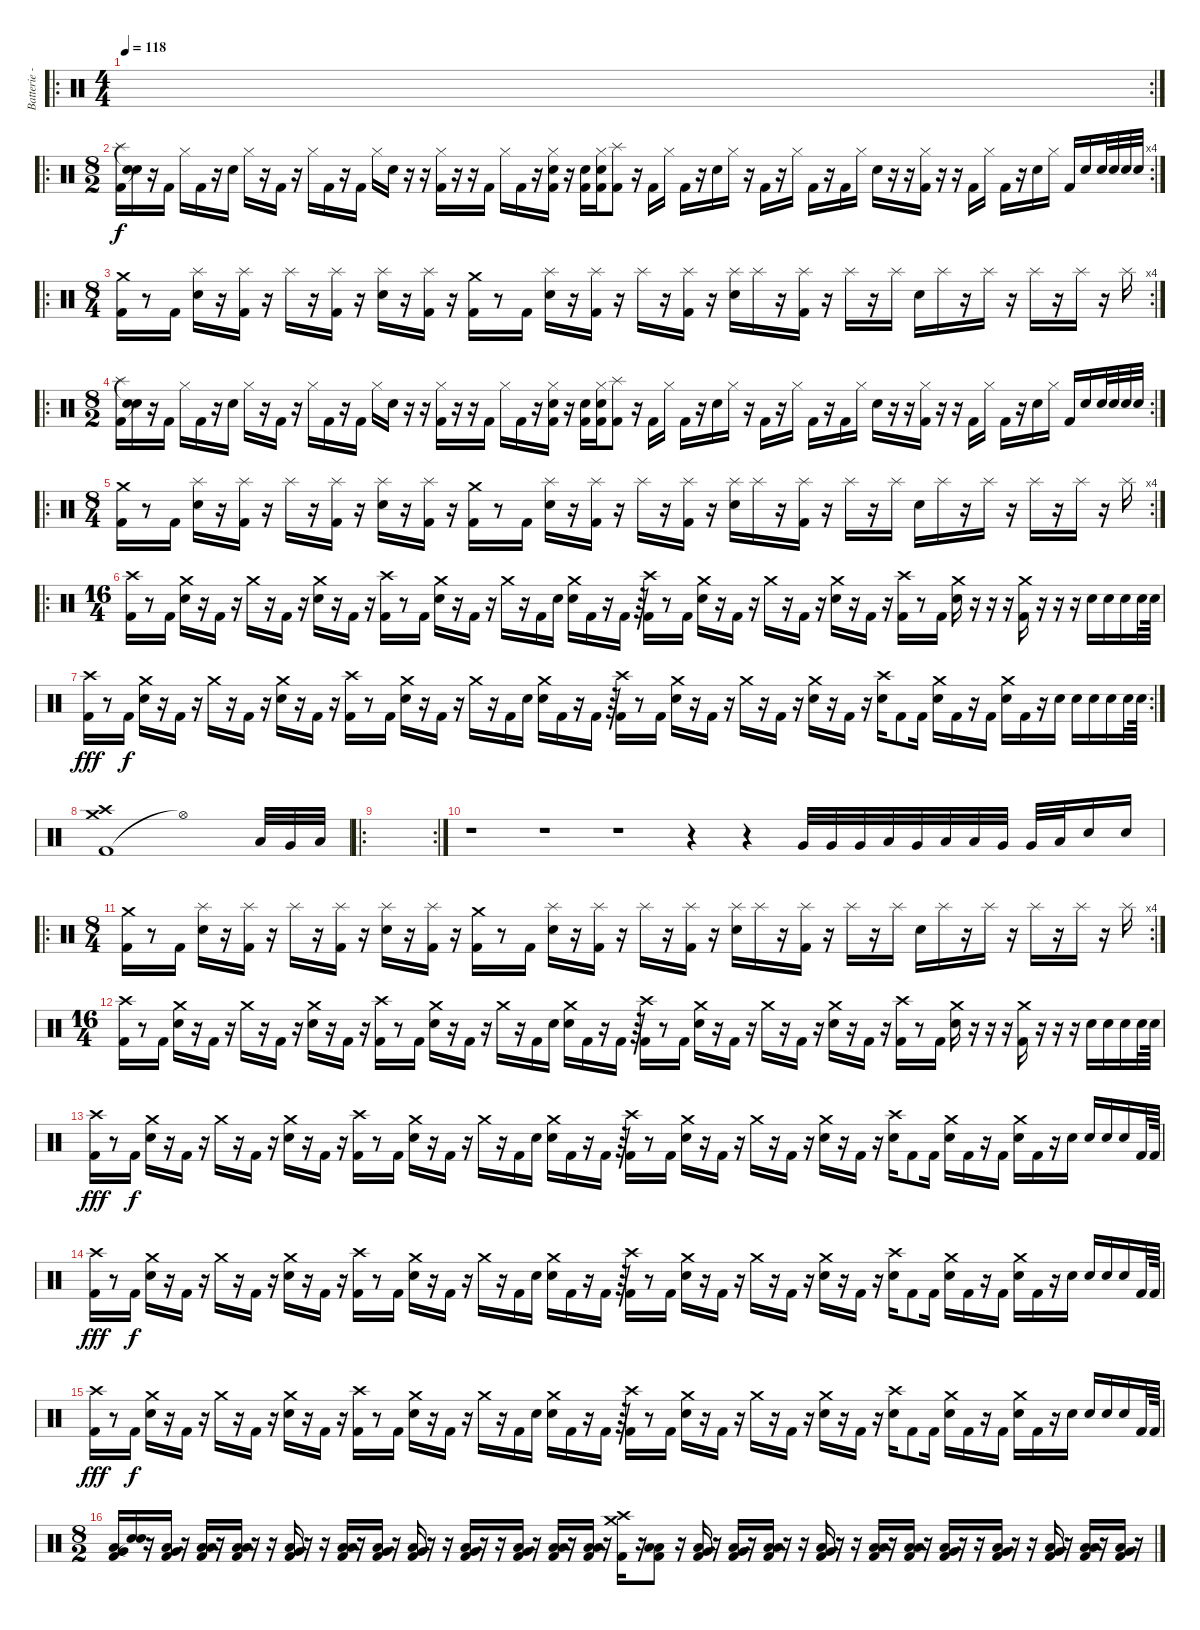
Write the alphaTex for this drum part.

\track ("Batterie - " "Batterie -") {instrument percussion}
\staff {score}
\articulation defaults
\ro
\rc 2
\ts (4 4)
\tempo 118
\clef neutral
\ks c
|
\ro
\rc 4
\ts (8 2)
("Splash (hit)" "Kick (hit) 2").16 ("Snare (hit)"{t} "Snare (hit)"{t}).16 r.16 "Kick (hit) 2".16 "Hi-Hat (closed)".16 "Kick (hit) 2".16 r.16 "Electric Snare (hit)".16 "Hi-Hat (closed)".16 r.16 "Kick (hit) 2".16 r.16 "Hi-Hat (closed)".16 "Kick (hit) 2".16 r.16 "Kick (hit) 2".16 "Hi-Hat (closed)".16 "Electric Snare (hit)".16 r.16 r.16 ("Hi-Hat (closed)" "Kick (hit) 2").16 r.16 r.16 "Kick (hit) 2".16 "Hi-Hat (closed)".16 "Kick (hit) 2".16 r.16 ("Hi-Hat (closed)" "Electric Snare (hit)" "Kick (hit) 2").16 r.16 ("Electric Snare (hit)" "Kick (hit) 2").16 ("Hi-Hat (closed)" "Electric Snare (hit)" "Kick (hit) 2").16 ("Splash (hit)" "Kick (hit) 2").8 r.16 "Kick (hit) 2".16 "Hi-Hat (closed)".16 "Kick (hit) 2".16 r.16 "Electric Snare (hit)".16 "Hi-Hat (closed)".16 r.16 "Kick (hit) 2".16 r.16 "Hi-Hat (closed)".16 "Kick (hit) 2".16 r.16 "Kick (hit) 2".16 "Hi-Hat (closed)".16 "Electric Snare (hit)".16 r.16 r.16 ("Hi-Hat (closed)" "Kick (hit) 2").16 r.16 r.16 "Kick (hit) 2".16 "Hi-Hat (closed)".16 "Kick (hit) 2".16 r.16 "Electric Snare (hit)".16 "Hi-Hat (closed)".16 "Kick (hit) 2".16 "Electric Snare (hit)".16 "Electric Snare (hit)".32 "Electric Snare (hit)".32 "Electric Snare (hit)".32 "Electric Snare (hit)".32 |
\ro
\rc 4
\ts (8 4)
("Kick (hit) 2" "Crash medium (hit)").16 r.8 "Kick (hit) 2".16 ("Electric Snare (hit)" "Splash (hit)").16 r.16 ("Kick (hit) 2" "Splash (hit)").16 r.16 "Splash (hit)".16 r.16 ("Kick (hit) 2" "Splash (hit)").16 r.16 ("Electric Snare (hit)" "Splash (hit)").16 r.16 ("Kick (hit) 2" "Splash (hit)").16 r.16 ("Kick (hit) 2" "Crash medium (hit)").16 r.8 "Kick (hit) 2".16 ("Electric Snare (hit)" "Splash (hit)").16 r.16 ("Splash (hit)" "Kick (hit) 2").16 r.16 "Splash (hit)".16 r.16 ("Kick (hit) 2" "Splash (hit)").16 r.16 ("Splash (hit)" "Electric Snare (hit)").16 "Splash (hit)".16 r.16 ("Kick (hit) 2" "Splash (hit)").16 r.16 "Splash (hit)".16 r.16 "Splash (hit)".16 "Snare (hit)".16 "Splash (hit)".16 r.16 "Splash (hit)".16 r.16 "Splash (hit)".16 r.16 "Splash (hit)".16 r.16 "Splash (hit)".16 |
\ro
\rc 2
\ts (8 2)
("Splash (hit)" "Kick (hit) 2").16 ("Snare (hit)"{t} "Snare (hit)"{t}).16 r.16 "Kick (hit) 2".16 "Hi-Hat (closed)".16 "Kick (hit) 2".16 r.16 "Electric Snare (hit)".16 "Hi-Hat (closed)".16 r.16 "Kick (hit) 2".16 r.16 "Hi-Hat (closed)".16 "Kick (hit) 2".16 r.16 "Kick (hit) 2".16 "Hi-Hat (closed)".16 "Electric Snare (hit)".16 r.16 r.16 ("Hi-Hat (closed)" "Kick (hit) 2").16 r.16 r.16 "Kick (hit) 2".16 "Hi-Hat (closed)".16 "Kick (hit) 2".16 r.16 ("Hi-Hat (closed)" "Electric Snare (hit)" "Kick (hit) 2").16 r.16 ("Electric Snare (hit)" "Kick (hit) 2").16 ("Hi-Hat (closed)" "Electric Snare (hit)" "Kick (hit) 2").16 ("Splash (hit)" "Kick (hit) 2").8 r.16 "Kick (hit) 2".16 "Hi-Hat (closed)".16 "Kick (hit) 2".16 r.16 "Electric Snare (hit)".16 "Hi-Hat (closed)".16 r.16 "Kick (hit) 2".16 r.16 "Hi-Hat (closed)".16 "Kick (hit) 2".16 r.16 "Kick (hit) 2".16 "Hi-Hat (closed)".16 "Electric Snare (hit)".16 r.16 r.16 ("Hi-Hat (closed)" "Kick (hit) 2").16 r.16 r.16 "Kick (hit) 2".16 "Hi-Hat (closed)".16 "Kick (hit) 2".16 r.16 "Electric Snare (hit)".16 "Hi-Hat (closed)".16 "Kick (hit) 2".16 "Electric Snare (hit)".16 "Electric Snare (hit)".32 "Electric Snare (hit)".32 "Electric Snare (hit)".32 "Electric Snare (hit)".32 |
\ro
\rc 4
\ts (8 4)
("Kick (hit) 2" "Crash medium (hit)").16 r.8 "Kick (hit) 2".16 ("Electric Snare (hit)" "Splash (hit)").16 r.16 ("Kick (hit) 2" "Splash (hit)").16 r.16 "Splash (hit)".16 r.16 ("Kick (hit) 2" "Splash (hit)").16 r.16 ("Electric Snare (hit)" "Splash (hit)").16 r.16 ("Kick (hit) 2" "Splash (hit)").16 r.16 ("Kick (hit) 2" "Crash medium (hit)").16 r.8 "Kick (hit) 2".16 ("Electric Snare (hit)" "Splash (hit)").16 r.16 ("Splash (hit)" "Kick (hit) 2").16 r.16 "Splash (hit)".16 r.16 ("Kick (hit) 2" "Splash (hit)").16 r.16 ("Splash (hit)" "Electric Snare (hit)").16 "Splash (hit)".16 r.16 ("Kick (hit) 2" "Splash (hit)").16 r.16 "Splash (hit)".16 r.16 "Splash (hit)".16 "Snare (hit)".16 "Splash (hit)".16 r.16 "Splash (hit)".16 r.16 "Splash (hit)".16 r.16 "Splash (hit)".16 r.16 "Splash (hit)".16 |
\ro
\ts (16 4)
("Kick (hit) 2" "Crash high (hit)").16 r.8 "Kick (hit) 2".16 ("Electric Snare (hit)" "Crash medium (hit)").16 r.16 "Kick (hit) 2".16 r.16 "Crash medium (hit)".16 r.16 "Kick (hit) 2".16 r.16 ("Electric Snare (hit)" "Crash medium (hit)").16 r.16 "Kick (hit) 2".16 r.16 ("Kick (hit) 2" "Crash high (hit)").16 r.8 "Kick (hit) 2".16 ("Electric Snare (hit)" "Crash medium (hit)").16 r.16 "Kick (hit) 2".16 r.16 "Crash medium (hit)".16 r.16 "Kick (hit) 2".16 "Snare (hit)".16 ("Crash medium (hit)" "Electric Snare (hit)").16 "Kick (hit) 2".16 r.16 "Kick (hit) 2".16 r.64 ("Kick (hit) 2" "Crash high (hit)").16 r.8 "Kick (hit) 2".16 ("Crash medium (hit)" "Electric Snare (hit)").16 r.16 "Kick (hit) 2".16 r.16 "Crash medium (hit)".16 r.16 "Kick (hit) 2".16 r.16 ("Electric Snare (hit)" "Crash medium (hit)").16 r.16 "Kick (hit) 2".16 r.16 ("Kick (hit) 2" "Crash high (hit)").16 r.8 "Kick (hit) 2".16 ("Crash medium (hit)" "Electric Snare (hit)").16 r.16 r.16 r.16 ("Kick (hit) 2" "Crash medium (hit)").16 r.16 r.16 r.16 "Electric Snare (hit)".16 "Electric Snare (hit)".16 "Electric Snare (hit)".16 "Electric Snare (hit)".32 "Electric Snare (hit)".64 |
\rc 2
("Kick (hit) 2" "Crash high (hit)").16{dy fff} r.8 "Kick (hit) 2".16{dy f} ("Electric Snare (hit)" "Crash medium (hit)").16 r.16 "Kick (hit) 2".16 r.16 "Crash medium (hit)".16 r.16 "Kick (hit) 2".16 r.16 ("Electric Snare (hit)" "Crash medium (hit)").16 r.16 "Kick (hit) 2".16 r.16 ("Kick (hit) 2" "Crash high (hit)").16 r.8 "Kick (hit) 2".16 ("Electric Snare (hit)" "Crash medium (hit)").16 r.16 "Kick (hit) 2".16 r.16 "Crash medium (hit)".16 r.16 "Kick (hit) 2".16 "Snare (hit)".16 ("Crash medium (hit)" "Electric Snare (hit)").16 "Kick (hit) 2".16 r.16 "Kick (hit) 2".16 r.64 ("Kick (hit) 2" "Crash high (hit)").16 r.8 "Kick (hit) 2".16 ("Crash medium (hit)" "Electric Snare (hit)").16 r.16 "Kick (hit) 2".16 r.16 "Crash medium (hit)".16 r.16 "Kick (hit) 2".16 r.16 ("Electric Snare (hit)" "Crash medium (hit)").16 r.16 "Kick (hit) 2".16 r.16 ("Electric Snare (hit)" "Crash high (hit)").16 "Kick (hit) 2".8 "Kick (hit) 2".16 ("Crash medium (hit)" "Electric Snare (hit)").16 "Kick (hit) 2".16 r.16 "Kick (hit) 2".16 ("Electric Snare (hit)" "Crash medium (hit)").16 "Kick (hit) 2".16 r.16 "Electric Snare (hit)".16 "Electric Snare (hit)".16 "Electric Snare (hit)".16 "Electric Snare (hit)".16 "Electric Snare (hit)".32 "Electric Snare (hit)".64 |
("Kick (hit) 2" "Crash high (hit)" "Crash medium (hit)").1 "Hi-Hat (open)"{t}.1 "Low Tom (hit)".32 "Very Low Tom (hit)".32 "Low Floor Tom (hit)".32 |
\ro
\rc 2
|
r.1 r.1 r.1 r.4 r.4 "Very Low Tom (hit)".32 "Very Low Tom (hit)".32 "Very Low Tom (hit)".32 "Low Tom (hit)".32 "Very Low Tom (hit)".32 "Low Tom (hit)".32 "Low Floor Tom (hit)".32 "Very Low Tom (hit)".32 "Very Low Tom (hit)".32 "Low Tom (hit)".32 "Electric Snare (hit)".16 "Electric Snare (hit)".16 |
\ro
\rc 4
\ts (8 4)
("Kick (hit) 2" "Crash medium (hit)").16 r.8 "Kick (hit) 2".16 ("Electric Snare (hit)" "Splash (hit)").16 r.16 ("Kick (hit) 2" "Splash (hit)").16 r.16 "Splash (hit)".16 r.16 ("Kick (hit) 2" "Splash (hit)").16 r.16 ("Electric Snare (hit)" "Splash (hit)").16 r.16 ("Kick (hit) 2" "Splash (hit)").16 r.16 ("Kick (hit) 2" "Crash medium (hit)").16 r.8 "Kick (hit) 2".16 ("Electric Snare (hit)" "Splash (hit)").16 r.16 ("Splash (hit)" "Kick (hit) 2").16 r.16 "Splash (hit)".16 r.16 ("Kick (hit) 2" "Splash (hit)").16 r.16 ("Splash (hit)" "Electric Snare (hit)").16 "Splash (hit)".16 r.16 ("Kick (hit) 2" "Splash (hit)").16 r.16 "Splash (hit)".16 r.16 "Splash (hit)".16 "Snare (hit)".16 "Splash (hit)".16 r.16 "Splash (hit)".16 r.16 "Splash (hit)".16 r.16 "Splash (hit)".16 r.16 "Splash (hit)".16 |
\ts (16 4)
("Kick (hit) 2" "Crash high (hit)").16 r.8 "Kick (hit) 2".16 ("Electric Snare (hit)" "Crash medium (hit)").16 r.16 "Kick (hit) 2".16 r.16 "Crash medium (hit)".16 r.16 "Kick (hit) 2".16 r.16 ("Electric Snare (hit)" "Crash medium (hit)").16 r.16 "Kick (hit) 2".16 r.16 ("Kick (hit) 2" "Crash high (hit)").16 r.8 "Kick (hit) 2".16 ("Electric Snare (hit)" "Crash medium (hit)").16 r.16 "Kick (hit) 2".16 r.16 "Crash medium (hit)".16 r.16 "Kick (hit) 2".16 "Snare (hit)".16 ("Crash medium (hit)" "Electric Snare (hit)").16 "Kick (hit) 2".16 r.16 "Kick (hit) 2".16 r.64 ("Kick (hit) 2" "Crash high (hit)").16 r.8 "Kick (hit) 2".16 ("Crash medium (hit)" "Electric Snare (hit)").16 r.16 "Kick (hit) 2".16 r.16 "Crash medium (hit)".16 r.16 "Kick (hit) 2".16 r.16 ("Electric Snare (hit)" "Crash medium (hit)").16 r.16 "Kick (hit) 2".16 r.16 ("Kick (hit) 2" "Crash high (hit)").16 r.8 "Kick (hit) 2".16 ("Crash medium (hit)" "Electric Snare (hit)").16 r.16 r.16 r.16 ("Kick (hit) 2" "Crash medium (hit)").16 r.16 r.16 r.16 "Electric Snare (hit)".16 "Electric Snare (hit)".16 "Electric Snare (hit)".16 "Electric Snare (hit)".32 "Electric Snare (hit)".64 |
("Kick (hit) 2" "Crash high (hit)").16{dy fff} r.8 "Kick (hit) 2".16{dy f} ("Electric Snare (hit)" "Crash medium (hit)").16 r.16 "Kick (hit) 2".16 r.16 "Crash medium (hit)".16 r.16 "Kick (hit) 2".16 r.16 ("Electric Snare (hit)" "Crash medium (hit)").16 r.16 "Kick (hit) 2".16 r.16 ("Kick (hit) 2" "Crash high (hit)").16 r.8 "Kick (hit) 2".16 ("Electric Snare (hit)" "Crash medium (hit)").16 r.16 "Kick (hit) 2".16 r.16 "Crash medium (hit)".16 r.16 "Kick (hit) 2".16 "Snare (hit)".16 ("Crash medium (hit)" "Electric Snare (hit)").16 "Kick (hit) 2".16 r.16 "Kick (hit) 2".16 r.64 ("Kick (hit) 2" "Crash high (hit)").16 r.8 "Kick (hit) 2".16 ("Crash medium (hit)" "Electric Snare (hit)").16 r.16 "Kick (hit) 2".16 r.16 "Crash medium (hit)".16 r.16 "Kick (hit) 2".16 r.16 ("Electric Snare (hit)" "Crash medium (hit)").16 r.16 "Kick (hit) 2".16 r.16 ("Electric Snare (hit)" "Crash high (hit)").16 "Kick (hit) 2".8 "Kick (hit) 2".16 ("Crash medium (hit)" "Electric Snare (hit)").16 "Kick (hit) 2".16 r.16 "Kick (hit) 2".16 ("Electric Snare (hit)" "Crash medium (hit)").16 "Kick (hit) 2".16 r.16 "Electric Snare (hit)".16 "Electric Snare (hit)".16 "Electric Snare (hit)".16 "Electric Snare (hit)".16 "Kick (hit) 2".32 "Kick (hit) 2".64 |
("Kick (hit) 2" "Crash high (hit)").16{dy fff} r.8 "Kick (hit) 2".16{dy f} ("Electric Snare (hit)" "Crash medium (hit)").16 r.16 "Kick (hit) 2".16 r.16 "Crash medium (hit)".16 r.16 "Kick (hit) 2".16 r.16 ("Electric Snare (hit)" "Crash medium (hit)").16 r.16 "Kick (hit) 2".16 r.16 ("Kick (hit) 2" "Crash high (hit)").16 r.8 "Kick (hit) 2".16 ("Electric Snare (hit)" "Crash medium (hit)").16 r.16 "Kick (hit) 2".16 r.16 "Crash medium (hit)".16 r.16 "Kick (hit) 2".16 "Snare (hit)".16 ("Crash medium (hit)" "Electric Snare (hit)").16 "Kick (hit) 2".16 r.16 "Kick (hit) 2".16 r.64 ("Kick (hit) 2" "Crash high (hit)").16 r.8 "Kick (hit) 2".16 ("Crash medium (hit)" "Electric Snare (hit)").16 r.16 "Kick (hit) 2".16 r.16 "Crash medium (hit)".16 r.16 "Kick (hit) 2".16 r.16 ("Electric Snare (hit)" "Crash medium (hit)").16 r.16 "Kick (hit) 2".16 r.16 ("Electric Snare (hit)" "Crash high (hit)").16 "Kick (hit) 2".8 "Kick (hit) 2".16 ("Crash medium (hit)" "Electric Snare (hit)").16 "Kick (hit) 2".16 r.16 "Kick (hit) 2".16 ("Electric Snare (hit)" "Crash medium (hit)").16 "Kick (hit) 2".16 r.16 "Electric Snare (hit)".16 "Electric Snare (hit)".16 "Electric Snare (hit)".16 "Electric Snare (hit)".16 "Kick (hit) 2".32 "Kick (hit) 2".64 |
("Kick (hit) 2" "Crash high (hit)").16{dy fff} r.8 "Kick (hit) 2".16{dy f} ("Electric Snare (hit)" "Crash medium (hit)").16 r.16 "Kick (hit) 2".16 r.16 "Crash medium (hit)".16 r.16 "Kick (hit) 2".16 r.16 ("Electric Snare (hit)" "Crash medium (hit)").16 r.16 "Kick (hit) 2".16 r.16 ("Kick (hit) 2" "Crash high (hit)").16 r.8 "Kick (hit) 2".16 ("Electric Snare (hit)" "Crash medium (hit)").16 r.16 "Kick (hit) 2".16 r.16 "Crash medium (hit)".16 r.16 "Kick (hit) 2".16 "Snare (hit)".16 ("Crash medium (hit)" "Electric Snare (hit)").16 "Kick (hit) 2".16 r.16 "Kick (hit) 2".16 r.64 ("Kick (hit) 2" "Crash high (hit)").16 r.8 "Kick (hit) 2".16 ("Crash medium (hit)" "Electric Snare (hit)").16 r.16 "Kick (hit) 2".16 r.16 "Crash medium (hit)".16 r.16 "Kick (hit) 2".16 r.16 ("Electric Snare (hit)" "Crash medium (hit)").16 r.16 "Kick (hit) 2".16 r.16 ("Electric Snare (hit)" "Crash high (hit)").16 "Kick (hit) 2".8 "Kick (hit) 2".16 ("Crash medium (hit)" "Electric Snare (hit)").16 "Kick (hit) 2".16 r.16 "Kick (hit) 2".16 ("Electric Snare (hit)" "Crash medium (hit)").16 "Kick (hit) 2".16 r.16 "Electric Snare (hit)".16 "Electric Snare (hit)".16 "Electric Snare (hit)".16 "Electric Snare (hit)".16 "Kick (hit) 2".32 "Kick (hit) 2".64 |
\ts (8 2)
("Low Tom (hit)" "Very Low Tom (hit)" "Kick (hit) 2").16 ("Snare (hit)"{t} "Snare (hit)"{t}).16 r.16 ("Low Floor Tom (hit)" "Very Low Tom (hit)" "Kick (hit) 2").16 r.16 ("Low Floor Tom (hit)" "Low Tom (hit)" "Kick (hit) 2").16 r.16 ("Low Floor Tom (hit)" "Low Floor Tom (hit)" "Kick (hit) 2").16 r.16 r.16 ("Low Tom (hit)" "Very Low Tom (hit)" "Kick (hit) 2").16 r.16 r.16 ("Low Floor Tom (hit)" "Low Tom (hit)" "Kick (hit) 2").16 r.16 ("Very Low Tom (hit)" "Low Tom (hit)" "Kick (hit) 2").16 r.16 ("Low Floor Tom (hit)" "Very Low Tom (hit)" "Kick (hit) 2").16 r.16 r.16 ("Low Tom (hit)" "Very Low Tom (hit)" "Kick (hit) 2").16 r.16 r.16 ("Very Low Tom (hit)" "Low Floor Tom (hit)" "Kick (hit) 2").16 r.16 ("Low Floor Tom (hit)" "Low Tom (hit)" "Kick (hit) 2").16 r.16 ("Low Floor Tom (hit)" "Low Floor Tom (hit)" "Kick (hit) 2").16 r.16 ("Kick (hit) 2" "Crash high (hit)" "Crash medium (hit)").16 r.16 ("Low Floor Tom (hit)" "Low Tom (hit)" "Kick (hit) 2").8 r.16 ("Low Floor Tom (hit)" "Very Low Tom (hit)" "Kick (hit) 2").16 r.16 ("Low Tom (hit)" "Very Low Tom (hit)" "Kick (hit) 2").16 r.16 ("Low Floor Tom (hit)" "Low Floor Tom (hit)" "Kick (hit) 2").16 r.16 r.16 ("Low Tom (hit)" "Very Low Tom (hit)" "Kick (hit) 2").16 r.16 r.16 ("Low Floor Tom (hit)" "Low Tom (hit)" "Kick (hit) 2").16 r.16 ("Low Floor Tom (hit)" "Low Floor Tom (hit)" "Kick (hit) 2").16 r.16 ("Low Tom (hit)" "Very Low Tom (hit)" "Kick (hit) 2").16 r.16 r.16 ("Low Tom (hit)" "Very Low Tom (hit)" "Kick (hit) 2").16 r.16 r.16 ("Low Floor Tom (hit)" "Very Low Tom (hit)" "Kick (hit) 2").16 r.16 ("Low Floor Tom (hit)" "Low Floor Tom (hit)" "Kick (hit) 2").16 r.16 ("Low Tom (hit)" "Very Low Tom (hit)" "Kick (hit) 2").16 r.16
